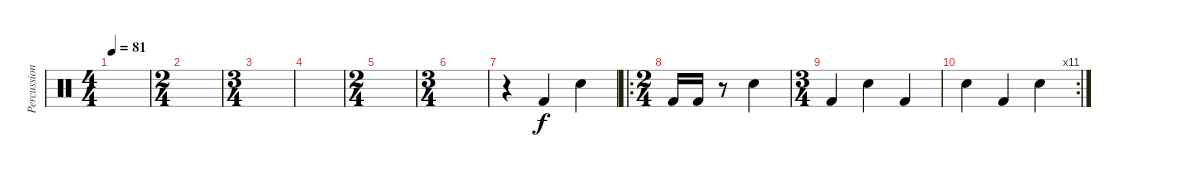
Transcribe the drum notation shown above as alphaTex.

\track ("Percussion" "Percussion") {instrument percussion}
\staff {score}
\articulation defaults
\ts (4 4)
\tempo 81
\clef neutral
\ks c
|
\ts (2 4)
|
\ts (3 4)
|
|
\ts (2 4)
|
\ts (3 4)
|
r.4 "Kick (hit) 2".4 "Snare (hit) 2".4 |
\ro
\ts (2 4)
"Kick (hit) 2".16 "Kick (hit) 2".16 r.8 "Snare (hit) 2".4 |
\ts (3 4)
"Kick (hit) 2".4 "Snare (hit) 2".4 "Kick (hit) 2".4 |
\rc 11 "Snare (hit) 2".4 "Kick (hit) 2".4 "Snare (hit) 2".4
